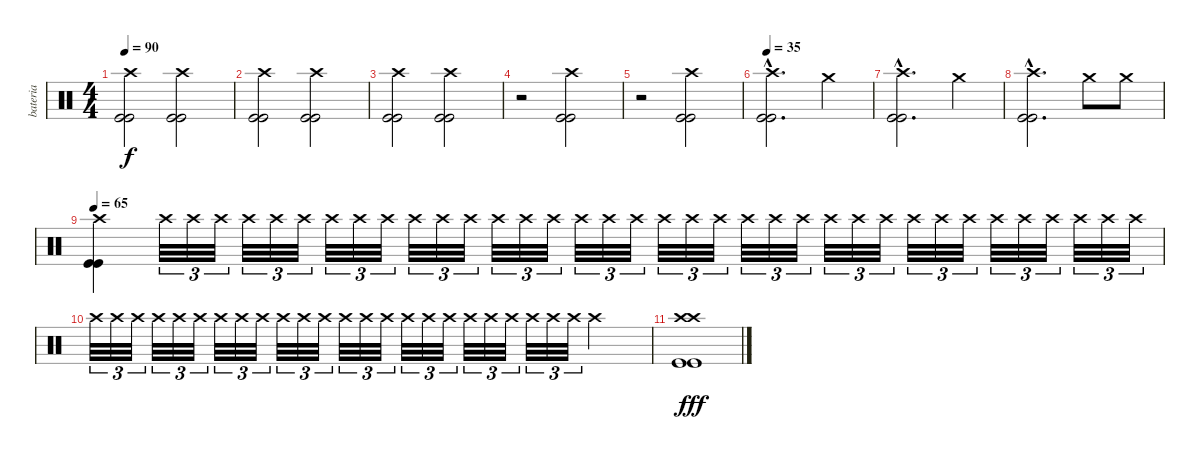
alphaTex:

\track ("bateria" "bateria") {instrument percussion}
\staff {score}
\articulation defaults
\ts (4 4)
\tempo 90
\clef neutral
\ks c
("Crash high (hit)" "Kick (hit)" "Kick (hit)").2{dy f} ("Crash high (hit)" "Kick (hit)" "Kick (hit)").2 |
("Crash high (hit)" "Kick (hit)" "Kick (hit)").2 ("Crash high (hit)" "Kick (hit)" "Kick (hit)").2 |
("Crash high (hit)" "Kick (hit)" "Kick (hit)").2 ("Crash high (hit)" "Kick (hit)" "Kick (hit)").2 |
r.2 ("Crash high (hit)" "Kick (hit)" "Kick (hit)").2 |
r.2 ("Crash high (hit)" "Kick (hit)" "Kick (hit)").2 |
\tempo 35
("Crash high (hit)"{hac} "Kick (hit)"{hac} "Kick (hit)"{hac}).2{d} "Crash medium (hit)".4 |
("Crash high (hit)"{hac} "Kick (hit)"{hac} "Kick (hit)"{hac}).2{d} "Crash medium (hit)".4 |
("Crash high (hit)"{hac} "Kick (hit)"{hac} "Kick (hit)"{hac}).2{d} "Crash medium (hit)".8 "Crash medium (hit)".8 |
\tempo 65
("Crash high (hit)" "Kick (hit)" "Kick (hit)").4 "Crash high (hit)".32{tu (3 2) volume 1} "Crash high (hit)".32{tu (3 2) volume 6} "Crash high (hit)".32{tu (3 2)} "Crash high (hit)".32{tu (3 2)} "Crash high (hit)".32{tu (3 2)} "Crash high (hit)".32{tu (3 2)} "Crash high (hit)".32{tu (3 2)} "Crash high (hit)".32{tu (3 2)} "Crash high (hit)".32{tu (3 2)} "Crash high (hit)".32{tu (3 2)} "Crash high (hit)".32{tu (3 2)} "Crash high (hit)".32{tu (3 2)} "Crash high (hit)".32{tu (3 2)} "Crash high (hit)".32{tu (3 2)} "Crash high (hit)".32{tu (3 2)} "Crash high (hit)".32{tu (3 2)} "Crash high (hit)".32{tu (3 2)} "Crash high (hit)".32{tu (3 2)} "Crash high (hit)".32{tu (3 2)} "Crash high (hit)".32{tu (3 2)} "Crash high (hit)".32{tu (3 2)} "Crash high (hit)".32{tu (3 2)} "Crash high (hit)".32{tu (3 2)} "Crash high (hit)".32{tu (3 2)} "Crash high (hit)".32{tu (3 2)} "Crash high (hit)".32{tu (3 2)} "Crash high (hit)".32{tu (3 2)} "Crash high (hit)".32{tu (3 2)} "Crash high (hit)".32{tu (3 2)} "Crash high (hit)".32{tu (3 2)} "Crash high (hit)".32{tu (3 2)} "Crash high (hit)".32{tu (3 2)} "Crash high (hit)".32{tu (3 2)} "Crash high (hit)".32{tu (3 2)} "Crash high (hit)".32{tu (3 2)} "Crash high (hit)".32{tu (3 2)} |
"Crash high (hit)".32{tu (3 2)} "Crash high (hit)".32{tu (3 2)} "Crash high (hit)".32{tu (3 2)} "Crash high (hit)".32{tu (3 2)} "Crash high (hit)".32{tu (3 2)} "Crash high (hit)".32{tu (3 2)} "Crash high (hit)".32{tu (3 2)} "Crash high (hit)".32{tu (3 2)} "Crash high (hit)".32{tu (3 2)} "Crash high (hit)".32{tu (3 2)} "Crash high (hit)".32{tu (3 2)} "Crash high (hit)".32{tu (3 2)} "Crash high (hit)".32{tu (3 2)} "Crash high (hit)".32{tu (3 2)} "Crash high (hit)".32{tu (3 2)} "Crash high (hit)".32{tu (3 2)} "Crash high (hit)".32{tu (3 2)} "Crash high (hit)".32{tu (3 2)} "Crash high (hit)".32{tu (3 2)} "Crash high (hit)".32{tu (3 2)} "Crash high (hit)".32{tu (3 2)} "Crash high (hit)".32{tu (3 2)} "Crash high (hit)".32{tu (3 2)} "Crash high (hit)".32{tu (3 2)} "Crash high (hit)".2 |
("Crash high (hit)" "Crash high (hit)" "Kick (hit)" "Kick (hit)").1{dy fff volume 16}
